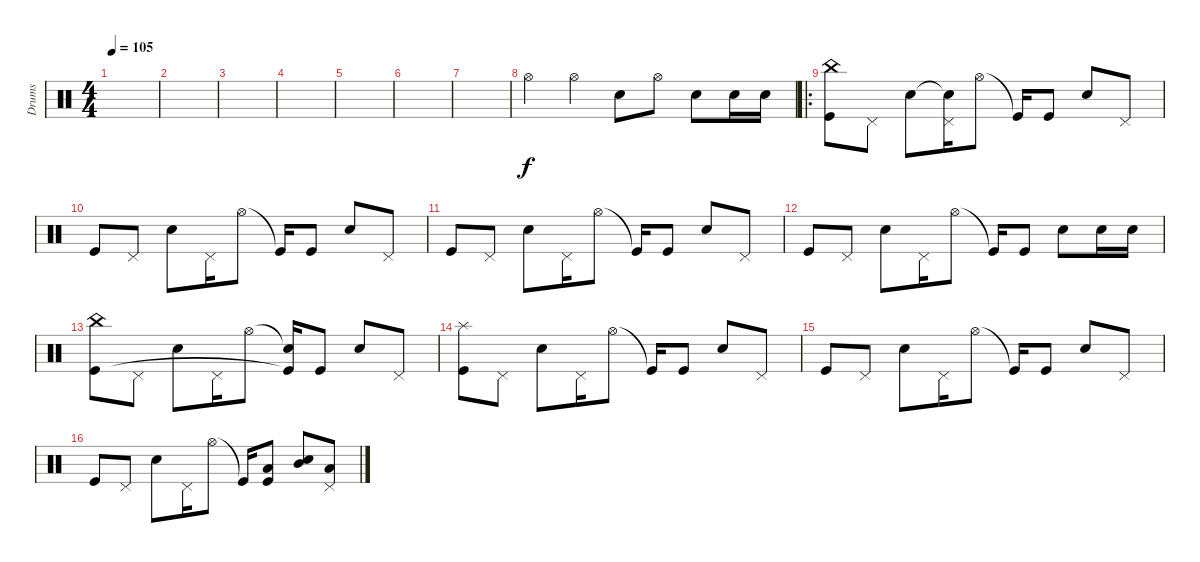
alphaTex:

\track ("Drums" "Drums") {instrument percussion}
\staff {score}
\articulation defaults
\ts (4 4)
\tempo 105
\clef neutral
\ks c
|
|
|
|
|
|
|
"Hi-Hat (open)".4 "Hi-Hat (open)".4 "Electric Snare (hit)".8 "Hi-Hat (open)".8 "Electric Snare (hit)".8 "Electric Snare (hit)".16 "Electric Snare (hit)".16 |
\ro
("China (hit)" "Kick (hit)").8 "Pedal Hi-Hat (hit)".8 "Snare (hit) 2".8 ("Snare (hit)"{t} "Pedal Hi-Hat (hit)").16 "Hi-Hat (open)".8 "Kick (hit)"{t}.16 "Kick (hit)".8 "Snare (hit) 2".8 "Pedal Hi-Hat (hit)".8 |
"Kick (hit)".8 "Pedal Hi-Hat (hit)".8 "Snare (hit) 2".8 "Pedal Hi-Hat (hit)".16 "Hi-Hat (open)".8 "Kick (hit)"{t}.16 "Kick (hit)".8 "Snare (hit) 2".8 "Pedal Hi-Hat (hit)".8 |
"Kick (hit)".8 "Pedal Hi-Hat (hit)".8 "Snare (hit) 2".8 "Pedal Hi-Hat (hit)".16 "Hi-Hat (open)".8 "Kick (hit)"{t}.16 "Kick (hit)".8 "Snare (hit) 2".8 "Pedal Hi-Hat (hit)".8 |
"Kick (hit)".8 "Pedal Hi-Hat (hit)".8 "Snare (hit) 2".8 "Pedal Hi-Hat (hit)".16 "Hi-Hat (open)".8 "Kick (hit)"{t}.16 "Kick (hit)".8 "Snare (hit) 2".8 "Snare (hit) 2".16 "Snare (hit) 2".16 |
("China (hit)" "Kick (hit)").8 "Pedal Hi-Hat (hit)".8 "Snare (hit) 2".8 "Pedal Hi-Hat (hit)".16 "Hi-Hat (open)".8 ("Snare (hit)"{t} "Kick (hit)"{t}).16 "Kick (hit)".8 "Snare (hit) 2".8 "Pedal Hi-Hat (hit)".8 |
("Splash (hit)" "Kick (hit)").8 "Pedal Hi-Hat (hit)".8 "Snare (hit) 2".8 "Pedal Hi-Hat (hit)".16 "Hi-Hat (open)".8 "Kick (hit)"{t}.16 "Kick (hit)".8 "Snare (hit) 2".8 "Pedal Hi-Hat (hit)".8 |
"Kick (hit)".8 "Pedal Hi-Hat (hit)".8 "Snare (hit) 2".8 "Pedal Hi-Hat (hit)".16 "Hi-Hat (open)".8 "Kick (hit)"{t}.16 "Kick (hit)".8 "Snare (hit) 2".8 "Pedal Hi-Hat (hit)".8 |
"Kick (hit)".8 "Pedal Hi-Hat (hit)".8 "Snare (hit) 2".8 "Pedal Hi-Hat (hit)".16 "Hi-Hat (open)".8 "Kick (hit)"{t}.16 ("Low Tom (hit)" "Kick (hit)").8 ("Mid Tom (hit)" "Snare (hit) 2").8 ("Low Floor Tom (hit)" "Pedal Hi-Hat (hit)").8
